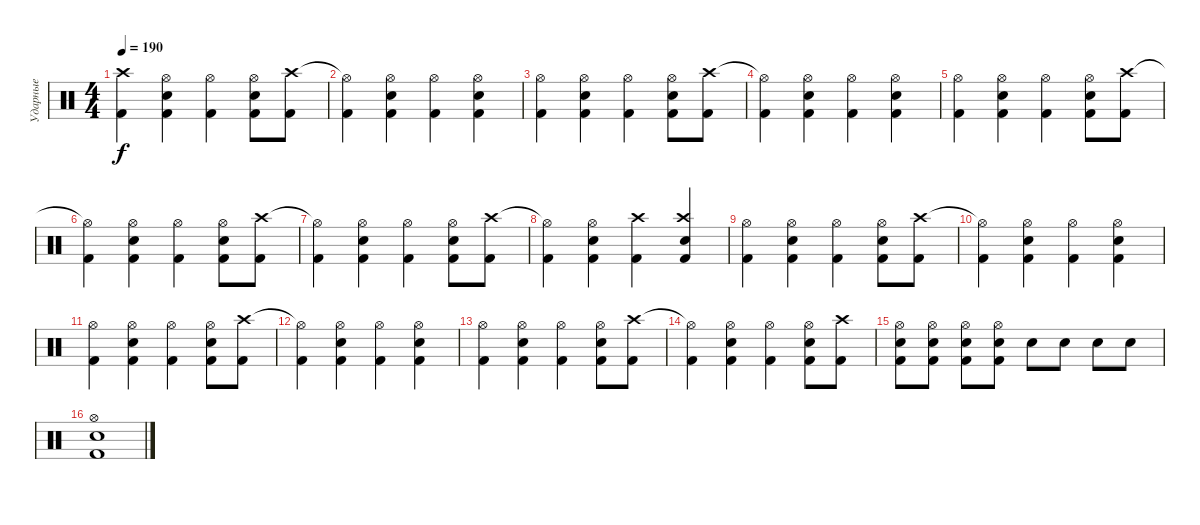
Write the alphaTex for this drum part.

\track ("Ударные" "Ударные") {instrument percussion}
\staff
\articulation defaults
\ts (4 4)
\tempo 190
\clef neutral
\ks c
("Kick (hit) 2" "Crash high (hit)").4{dy f} ("Kick (hit) 2" "Snare (hit) 2" "Hi-Hat (open)").4 ("Kick (hit) 2" "Hi-Hat (open)").4 ("Kick (hit) 2" "Snare (hit) 2" "Hi-Hat (open)").8 ("Kick (hit) 2" "Crash high (hit)").8 |
("Kick (hit) 2" "Hi-Hat (open)"{t}).4 ("Kick (hit) 2" "Snare (hit) 2" "Hi-Hat (open)").4 ("Kick (hit) 2" "Hi-Hat (open)").4 ("Kick (hit) 2" "Snare (hit) 2" "Hi-Hat (open)").4 |
("Kick (hit) 2" "Hi-Hat (open)").4 ("Kick (hit) 2" "Snare (hit) 2" "Hi-Hat (open)").4 ("Kick (hit) 2" "Hi-Hat (open)").4 ("Kick (hit) 2" "Snare (hit) 2" "Hi-Hat (open)").8 ("Kick (hit) 2" "Crash high (hit)").8 |
("Kick (hit) 2" "Hi-Hat (open)"{t}).4 ("Kick (hit) 2" "Snare (hit) 2" "Hi-Hat (open)").4 ("Kick (hit) 2" "Hi-Hat (open)").4 ("Kick (hit) 2" "Snare (hit) 2" "Hi-Hat (open)").4 |
("Kick (hit) 2" "Hi-Hat (open)").4 ("Kick (hit) 2" "Snare (hit) 2" "Hi-Hat (open)").4 ("Kick (hit) 2" "Hi-Hat (open)").4 ("Kick (hit) 2" "Snare (hit) 2" "Hi-Hat (open)").8 ("Kick (hit) 2" "Crash high (hit)").8 |
("Kick (hit) 2" "Hi-Hat (open)"{t}).4 ("Kick (hit) 2" "Snare (hit) 2" "Hi-Hat (open)").4 ("Kick (hit) 2" "Hi-Hat (open)").4 ("Kick (hit) 2" "Snare (hit) 2" "Hi-Hat (open)").8 ("Kick (hit) 2" "Crash high (hit)").8 |
("Kick (hit) 2" "Hi-Hat (open)"{t}).4 ("Kick (hit) 2" "Snare (hit) 2" "Hi-Hat (open)").4 ("Kick (hit) 2" "Hi-Hat (open)").4 ("Kick (hit) 2" "Snare (hit) 2" "Hi-Hat (open)").8 ("Kick (hit) 2" "Crash high (hit)").8 |
("Kick (hit) 2" "Hi-Hat (open)"{t}).4 ("Kick (hit) 2" "Snare (hit) 2" "Hi-Hat (open)").4 ("Kick (hit) 2" "Crash high (hit)").4 ("Kick (hit) 2" "Snare (hit) 2" "Crash high (hit)").4 |
("Kick (hit) 2" "Hi-Hat (open)").4 ("Kick (hit) 2" "Snare (hit) 2" "Hi-Hat (open)").4 ("Kick (hit) 2" "Hi-Hat (open)").4 ("Kick (hit) 2" "Snare (hit) 2" "Hi-Hat (open)").8 ("Kick (hit) 2" "Crash high (hit)").8 |
("Kick (hit) 2" "Hi-Hat (open)"{t}).4 ("Kick (hit) 2" "Snare (hit) 2" "Hi-Hat (open)").4 ("Kick (hit) 2" "Hi-Hat (open)").4 ("Kick (hit) 2" "Snare (hit) 2" "Hi-Hat (open)").4 |
("Kick (hit) 2" "Hi-Hat (open)").4 ("Kick (hit) 2" "Snare (hit) 2" "Hi-Hat (open)").4 ("Kick (hit) 2" "Hi-Hat (open)").4 ("Kick (hit) 2" "Snare (hit) 2" "Hi-Hat (open)").8 ("Kick (hit) 2" "Crash high (hit)").8 |
("Kick (hit) 2" "Hi-Hat (open)"{t}).4 ("Kick (hit) 2" "Snare (hit) 2" "Hi-Hat (open)").4 ("Kick (hit) 2" "Hi-Hat (open)").4 ("Kick (hit) 2" "Snare (hit) 2" "Hi-Hat (open)").4 |
("Kick (hit) 2" "Hi-Hat (open)").4 ("Kick (hit) 2" "Snare (hit) 2" "Hi-Hat (open)").4 ("Kick (hit) 2" "Hi-Hat (open)").4 ("Kick (hit) 2" "Snare (hit) 2" "Hi-Hat (open)").8 ("Kick (hit) 2" "Crash high (hit)").8 |
("Kick (hit) 2" "Hi-Hat (open)"{t}).4 ("Kick (hit) 2" "Snare (hit) 2" "Hi-Hat (open)").4 ("Kick (hit) 2" "Hi-Hat (open)").4 ("Kick (hit) 2" "Snare (hit) 2" "Hi-Hat (open)").8 ("Kick (hit) 2" "Crash high (hit)").8 |
("Kick (hit) 2" "Snare (hit) 2" "Hi-Hat (open)").8 ("Kick (hit) 2" "Snare (hit) 2" "Hi-Hat (open)").8 ("Kick (hit) 2" "Snare (hit) 2" "Hi-Hat (open)").8 ("Kick (hit) 2" "Snare (hit) 2" "Hi-Hat (open)").8 "Snare (hit) 2".8 "Snare (hit) 2".8 "Snare (hit) 2".8 "Snare (hit) 2".8 |
("Kick (hit) 2" "Snare (hit) 2" "Hi-Hat (open)").1
